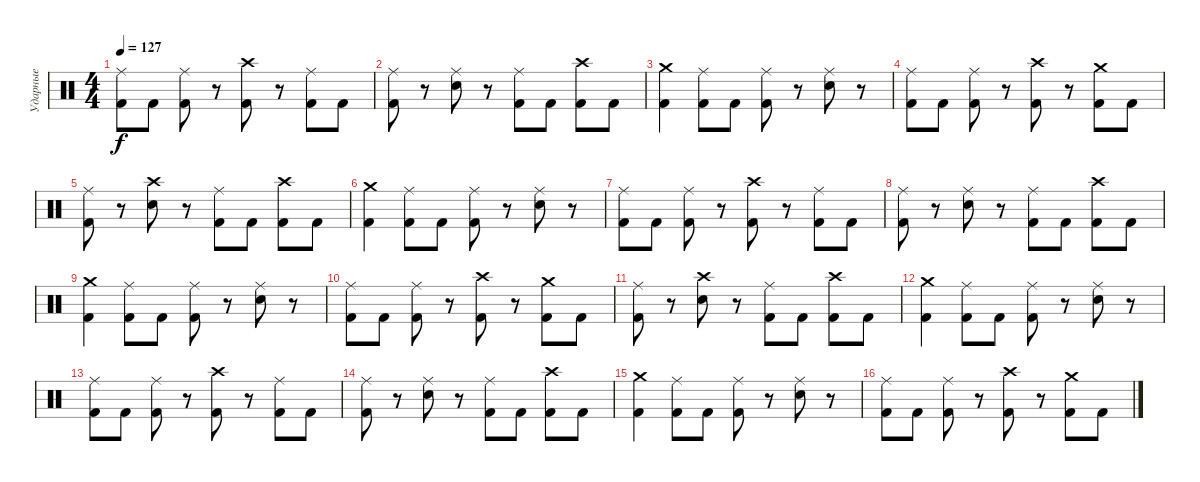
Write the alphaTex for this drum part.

\track ("Ударные" "Ударные") {instrument percussion}
\staff {score}
\articulation defaults
\ts (4 4)
\tempo 127
\clef neutral
\ks c
("Ride (middle)" "Kick (hit) 2").8{dy f} "Kick (hit) 2".8 ("Ride (middle)" "Kick (hit) 2").8 r.8 ("Crash high (hit)" "Kick (hit) 2").8 r.8 ("Ride (middle)" "Kick (hit) 2").8 "Kick (hit) 2".8 |
("Ride (middle)" "Kick (hit) 2").8 r.8 ("Ride (middle)" "Electric Snare (hit)").8 r.8 ("Ride (middle)" "Kick (hit) 2").8 "Kick (hit) 2".8 ("Kick (hit) 2" "Crash high (hit)").8 "Kick (hit) 2".8 |
("Crash medium (hit)" "Kick (hit) 2").4 ("Ride (middle)" "Kick (hit) 2").8 "Kick (hit) 2".8 ("Ride (middle)" "Kick (hit) 2").8 r.8 ("Ride (middle)" "Electric Snare (hit)").8 r.8 |
("Ride (middle)" "Kick (hit) 2").8 "Kick (hit) 2".8 ("Ride (middle)" "Kick (hit) 2").8 r.8 ("Crash high (hit)" "Kick (hit) 2").8 r.8 ("Crash medium (hit)" "Kick (hit) 2").8 "Kick (hit) 2".8 |
("Ride (middle)" "Kick (hit) 2").8 r.8 ("Crash high (hit)" "Electric Snare (hit)").8 r.8 ("Ride (middle)" "Kick (hit) 2").8 "Kick (hit) 2".8 ("Kick (hit) 2" "Crash high (hit)").8 "Kick (hit) 2".8 |
("Crash medium (hit)" "Kick (hit) 2").4 ("Ride (middle)" "Kick (hit) 2").8 "Kick (hit) 2".8 ("Ride (middle)" "Kick (hit) 2").8 r.8 ("Ride (middle)" "Electric Snare (hit)").8 r.8 |
("Ride (middle)" "Kick (hit) 2").8 "Kick (hit) 2".8 ("Ride (middle)" "Kick (hit) 2").8 r.8 ("Crash high (hit)" "Kick (hit) 2").8 r.8 ("Ride (middle)" "Kick (hit) 2").8 "Kick (hit) 2".8 |
("Ride (middle)" "Kick (hit) 2").8 r.8 ("Ride (middle)" "Electric Snare (hit)").8 r.8 ("Ride (middle)" "Kick (hit) 2").8 "Kick (hit) 2".8 ("Kick (hit) 2" "Crash high (hit)").8 "Kick (hit) 2".8 |
("Crash medium (hit)" "Kick (hit) 2").4 ("Ride (middle)" "Kick (hit) 2").8 "Kick (hit) 2".8 ("Ride (middle)" "Kick (hit) 2").8 r.8 ("Ride (middle)" "Electric Snare (hit)").8 r.8 |
("Ride (middle)" "Kick (hit) 2").8 "Kick (hit) 2".8 ("Ride (middle)" "Kick (hit) 2").8 r.8 ("Crash high (hit)" "Kick (hit) 2").8 r.8 ("Crash medium (hit)" "Kick (hit) 2").8 "Kick (hit) 2".8 |
("Ride (middle)" "Kick (hit) 2").8 r.8 ("Crash high (hit)" "Electric Snare (hit)").8 r.8 ("Ride (middle)" "Kick (hit) 2").8 "Kick (hit) 2".8 ("Kick (hit) 2" "Crash high (hit)").8 "Kick (hit) 2".8 |
("Crash medium (hit)" "Kick (hit) 2").4 ("Ride (middle)" "Kick (hit) 2").8 "Kick (hit) 2".8 ("Ride (middle)" "Kick (hit) 2").8 r.8 ("Ride (middle)" "Electric Snare (hit)").8 r.8 |
("Ride (middle)" "Kick (hit) 2").8 "Kick (hit) 2".8 ("Ride (middle)" "Kick (hit) 2").8 r.8 ("Crash high (hit)" "Kick (hit) 2").8 r.8 ("Ride (middle)" "Kick (hit) 2").8 "Kick (hit) 2".8 |
("Ride (middle)" "Kick (hit) 2").8 r.8 ("Ride (middle)" "Electric Snare (hit)").8 r.8 ("Ride (middle)" "Kick (hit) 2").8 "Kick (hit) 2".8 ("Kick (hit) 2" "Crash high (hit)").8 "Kick (hit) 2".8 |
("Crash medium (hit)" "Kick (hit) 2").4 ("Ride (middle)" "Kick (hit) 2").8 "Kick (hit) 2".8 ("Ride (middle)" "Kick (hit) 2").8 r.8 ("Ride (middle)" "Electric Snare (hit)").8 r.8 |
("Ride (middle)" "Kick (hit) 2").8 "Kick (hit) 2".8 ("Ride (middle)" "Kick (hit) 2").8 r.8 ("Crash high (hit)" "Kick (hit) 2").8 r.8 ("Crash medium (hit)" "Kick (hit) 2").8 "Kick (hit) 2".8
